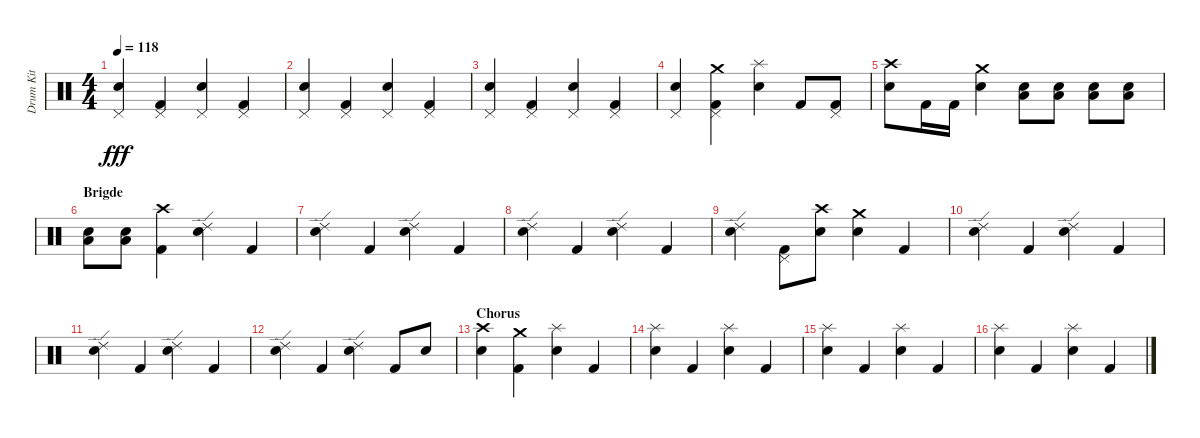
\track ("Drum Kit" "Drum Kit") {instrument percussion}
\staff {score}
\articulation defaults
\ts (4 4)
\tempo 118
\clef neutral
\ks c
("Electric Snare (hit)" "Pedal Hi-Hat (hit)").4{dy fff} ("Kick (hit) 2" "Pedal Hi-Hat (hit)").4 ("Electric Snare (hit)" "Pedal Hi-Hat (hit)").4 ("Pedal Hi-Hat (hit)" "Kick (hit) 2").4 |
("Pedal Hi-Hat (hit)" "Electric Snare (hit)").4 ("Kick (hit) 2" "Pedal Hi-Hat (hit)").4 ("Pedal Hi-Hat (hit)" "Electric Snare (hit)").4 ("Pedal Hi-Hat (hit)" "Kick (hit) 2").4 |
("Pedal Hi-Hat (hit)" "Electric Snare (hit)").4 ("Pedal Hi-Hat (hit)" "Kick (hit) 2").4 ("Electric Snare (hit)" "Pedal Hi-Hat (hit)").4 ("Kick (hit) 2" "Pedal Hi-Hat (hit)").4 |
("Electric Snare (hit)" "Pedal Hi-Hat (hit)").4 ("Pedal Hi-Hat (hit)" "Kick (hit) 2" "Crash medium (hit)").4 ("Electric Snare (hit)" "Splash (hit)").4 "Kick (hit) 2".8 ("Pedal Hi-Hat (hit)" "Kick (hit) 2").8 |
("Electric Snare (hit)" "Crash high (hit)").8 "Kick (hit) 2".16 "Kick (hit) 2".16 ("Electric Snare (hit)" "Crash medium (hit)").4 ("Low Floor Tom (hit)" "Snare (hit) 2").8 ("Low Floor Tom (hit)" "Snare (hit) 2").8 ("Low Floor Tom (hit)" "Snare (hit) 2").8 ("Low Floor Tom (hit)" "Snare (hit) 2").8 |
\section ("" "Brigde")
("Low Floor Tom (hit)" "Snare (hit) 2").8 ("Low Floor Tom (hit)" "Snare (hit) 2").8 ("Crash high (hit)" "Kick (hit) 2").4 ("Electric Snare (hit)" "Ride (edge) 2").4 "Kick (hit) 2".4 |
("Electric Snare (hit)" "Ride (edge) 2").4 "Kick (hit) 2".4 ("Electric Snare (hit)" "Ride (edge) 2").4 "Kick (hit) 2".4 |
("Electric Snare (hit)" "Ride (edge) 2").4 "Kick (hit) 2".4 ("Electric Snare (hit)" "Ride (edge) 2").4 "Kick (hit) 2".4 |
("Electric Snare (hit)" "Ride (edge) 2").4 ("Kick (hit) 2" "Pedal Hi-Hat (hit)").8 ("Electric Snare (hit)" "Crash high (hit)").8 ("Electric Snare (hit)" "Crash medium (hit)").4 "Kick (hit) 2".4 |
("Electric Snare (hit)" "Ride (edge) 2").4 "Kick (hit) 2".4 ("Ride (edge) 2" "Electric Snare (hit)").4 "Kick (hit) 2".4 |
("Electric Snare (hit)" "Ride (edge) 2").4 "Kick (hit) 2".4 ("Ride (edge) 2" "Electric Snare (hit)").4 "Kick (hit) 2".4 |
("Electric Snare (hit)" "Ride (edge) 2").4 "Kick (hit) 2".4 ("Electric Snare (hit)" "Ride (edge) 2").4 "Kick (hit) 2".8 "Electric Snare (hit)".8 |
\section ("" "Chorus")
("Crash high (hit)" "Electric Snare (hit)").4 ("Kick (hit) 2" "Crash medium (hit)").4 ("Splash (hit)" "Electric Snare (hit)").4 "Kick (hit) 2".4 |
("Splash (hit)" "Electric Snare (hit)").4 "Kick (hit) 2".4 ("Splash (hit)" "Electric Snare (hit)").4 "Kick (hit) 2".4 |
("Splash (hit)" "Electric Snare (hit)").4 "Kick (hit) 2".4 ("Splash (hit)" "Electric Snare (hit)").4 "Kick (hit) 2".4 |
("Splash (hit)" "Electric Snare (hit)").4 "Kick (hit) 2".4 ("Splash (hit)" "Electric Snare (hit)").4 "Kick (hit) 2".4
